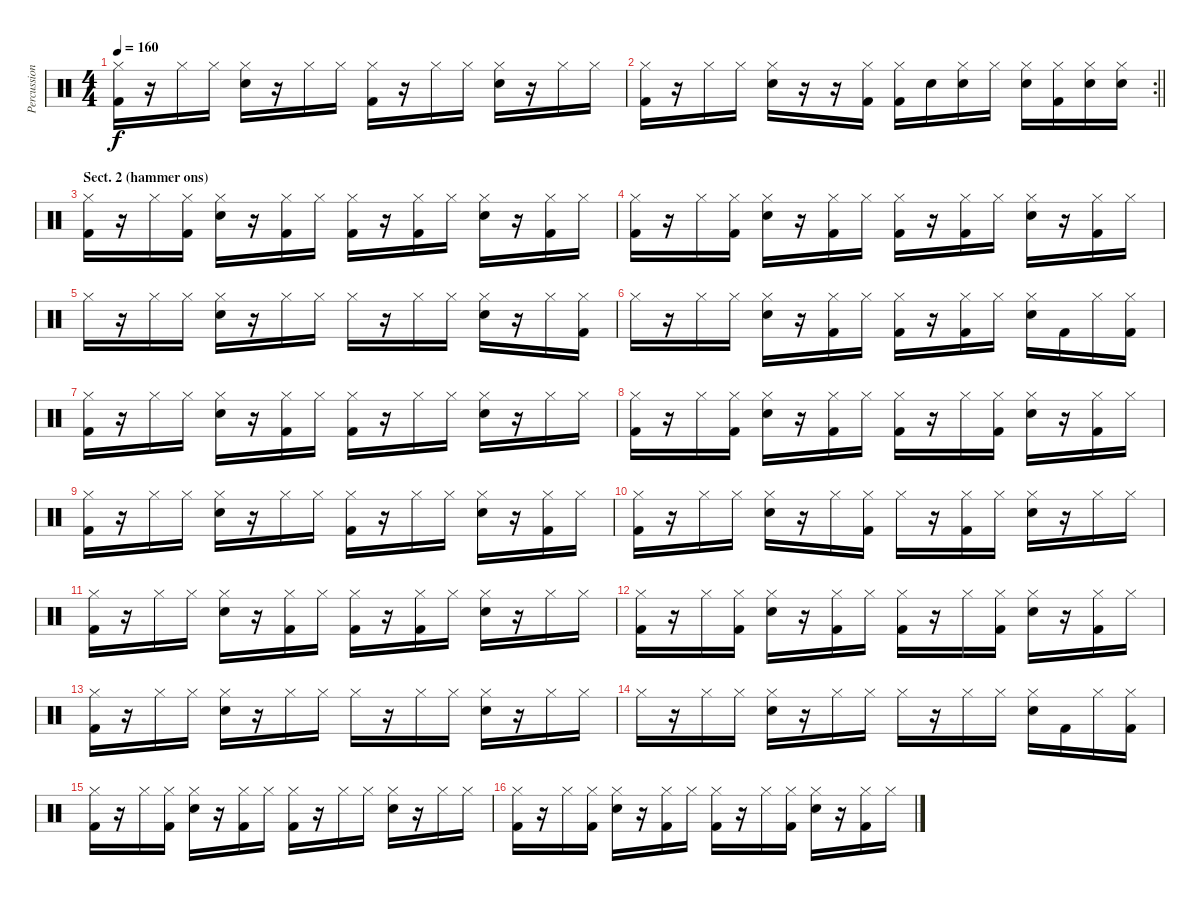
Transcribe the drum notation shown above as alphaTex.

\track ("Percussion" "Percussion") {instrument percussion}
\staff {score}
\articulation defaults
\ts (4 4)
\tempo 160
\clef neutral
\ks c
("Hi-Hat (closed)" "Kick (hit) 2").16{dy f} r.16 "Hi-Hat (closed)".16 "Hi-Hat (closed)".16 ("Hi-Hat (closed)" "Snare (hit) 2").16 r.16 "Hi-Hat (closed)".16 "Hi-Hat (closed)".16 ("Hi-Hat (closed)" "Kick (hit) 2").16 r.16 "Hi-Hat (closed)".16 "Hi-Hat (closed)".16 ("Hi-Hat (closed)" "Snare (hit) 2").16 r.16 "Hi-Hat (closed)".16 "Hi-Hat (closed)".16 |
\rc 2
\barLineRight lightlight
("Hi-Hat (closed)" "Kick (hit) 2").16 r.16 "Hi-Hat (closed)".16 "Hi-Hat (closed)".16 ("Hi-Hat (closed)" "Snare (hit) 2").16 r.16 r.16 ("Hi-Hat (closed)" "Kick (hit) 2").16 ("Hi-Hat (closed)" "Kick (hit) 2").16 "Snare (hit) 2".16 ("Hi-Hat (closed)" "Snare (hit) 2").16 "Hi-Hat (closed)".16 ("Hi-Hat (closed)" "Snare (hit) 2").16 ("Hi-Hat (closed)" "Kick (hit) 2").16 ("Hi-Hat (closed)" "Snare (hit) 2").16 ("Hi-Hat (closed)" "Snare (hit) 2").16 |
\section ("" "Sect. 2 (hammer ons)")
("Hi-Hat (closed)" "Kick (hit) 2").16 r.16 "Hi-Hat (closed)".16 ("Hi-Hat (closed)" "Kick (hit) 2").16 ("Hi-Hat (closed)" "Snare (hit) 2").16 r.16 ("Hi-Hat (closed)" "Kick (hit) 2").16 "Hi-Hat (closed)".16 ("Hi-Hat (closed)" "Kick (hit) 2").16 r.16 ("Hi-Hat (closed)" "Kick (hit) 2").16 "Hi-Hat (closed)".16 ("Hi-Hat (closed)" "Snare (hit) 2").16 r.16 ("Hi-Hat (closed)" "Kick (hit) 2").16 "Hi-Hat (closed)".16 |
("Hi-Hat (closed)" "Kick (hit) 2").16 r.16 "Hi-Hat (closed)".16 ("Hi-Hat (closed)" "Kick (hit) 2").16 ("Hi-Hat (closed)" "Snare (hit) 2").16 r.16 ("Hi-Hat (closed)" "Kick (hit) 2").16 "Hi-Hat (closed)".16 ("Hi-Hat (closed)" "Kick (hit) 2").16 r.16 ("Hi-Hat (closed)" "Kick (hit) 2").16 "Hi-Hat (closed)".16 ("Hi-Hat (closed)" "Snare (hit) 2").16 r.16 ("Hi-Hat (closed)" "Kick (hit) 2").16 "Hi-Hat (closed)".16 |
"Hi-Hat (closed)".16 r.16 "Hi-Hat (closed)".16 "Hi-Hat (closed)".16 ("Hi-Hat (closed)" "Snare (hit) 2").16 r.16 "Hi-Hat (closed)".16 "Hi-Hat (closed)".16 "Hi-Hat (closed)".16 r.16 "Hi-Hat (closed)".16 "Hi-Hat (closed)".16 ("Hi-Hat (closed)" "Snare (hit) 2").16 r.16 "Hi-Hat (closed)".16 ("Hi-Hat (closed)" "Kick (hit) 2").16 |
"Hi-Hat (closed)".16 r.16 "Hi-Hat (closed)".16 "Hi-Hat (closed)".16 ("Hi-Hat (closed)" "Snare (hit) 2").16 r.16 ("Hi-Hat (closed)" "Kick (hit) 2").16 "Hi-Hat (closed)".16 ("Hi-Hat (closed)" "Kick (hit) 2").16 r.16 ("Hi-Hat (closed)" "Kick (hit) 2").16 "Hi-Hat (closed)".16 ("Hi-Hat (closed)" "Snare (hit) 2").16 "Kick (hit) 2".16 "Hi-Hat (closed)".16 ("Hi-Hat (closed)" "Kick (hit) 2").16 |
("Hi-Hat (closed)" "Kick (hit) 2").16 r.16 "Hi-Hat (closed)".16 "Hi-Hat (closed)".16 ("Hi-Hat (closed)" "Snare (hit) 2").16 r.16 ("Hi-Hat (closed)" "Kick (hit) 2").16 "Hi-Hat (closed)".16 ("Hi-Hat (closed)" "Kick (hit) 2").16 r.16 "Hi-Hat (closed)".16 "Hi-Hat (closed)".16 ("Hi-Hat (closed)" "Snare (hit) 2").16 r.16 "Hi-Hat (closed)".16 "Hi-Hat (closed)".16 |
("Hi-Hat (closed)" "Kick (hit) 2").16 r.16 "Hi-Hat (closed)".16 ("Hi-Hat (closed)" "Kick (hit) 2").16 ("Hi-Hat (closed)" "Snare (hit) 2").16 r.16 ("Hi-Hat (closed)" "Kick (hit) 2").16 "Hi-Hat (closed)".16 ("Hi-Hat (closed)" "Kick (hit) 2").16 r.16 "Hi-Hat (closed)".16 ("Hi-Hat (closed)" "Kick (hit) 2").16 ("Hi-Hat (closed)" "Snare (hit) 2").16 r.16 ("Hi-Hat (closed)" "Kick (hit) 2").16 "Hi-Hat (closed)".16 |
("Hi-Hat (closed)" "Kick (hit) 2").16 r.16 "Hi-Hat (closed)".16 "Hi-Hat (closed)".16 ("Hi-Hat (closed)" "Snare (hit) 2").16 r.16 "Hi-Hat (closed)".16 "Hi-Hat (closed)".16 ("Hi-Hat (closed)" "Kick (hit) 2").16 r.16 "Hi-Hat (closed)".16 "Hi-Hat (closed)".16 ("Hi-Hat (closed)" "Snare (hit) 2").16 r.16 ("Hi-Hat (closed)" "Kick (hit) 2").16 "Hi-Hat (closed)".16 |
("Hi-Hat (closed)" "Kick (hit) 2").16 r.16 "Hi-Hat (closed)".16 "Hi-Hat (closed)".16 ("Hi-Hat (closed)" "Snare (hit) 2").16 r.16 "Hi-Hat (closed)".16 ("Hi-Hat (closed)" "Kick (hit) 2").16 "Hi-Hat (closed)".16 r.16 ("Hi-Hat (closed)" "Kick (hit) 2").16 "Hi-Hat (closed)".16 ("Hi-Hat (closed)" "Snare (hit) 2").16 r.16 "Hi-Hat (closed)".16 "Hi-Hat (closed)".16 |
("Hi-Hat (closed)" "Kick (hit) 2").16 r.16 "Hi-Hat (closed)".16 "Hi-Hat (closed)".16 ("Hi-Hat (closed)" "Snare (hit) 2").16 r.16 ("Hi-Hat (closed)" "Kick (hit) 2").16 "Hi-Hat (closed)".16 ("Hi-Hat (closed)" "Kick (hit) 2").16 r.16 ("Hi-Hat (closed)" "Kick (hit) 2").16 "Hi-Hat (closed)".16 ("Hi-Hat (closed)" "Snare (hit) 2").16 r.16 "Hi-Hat (closed)".16 "Hi-Hat (closed)".16 |
("Hi-Hat (closed)" "Kick (hit) 2").16 r.16 "Hi-Hat (closed)".16 ("Hi-Hat (closed)" "Kick (hit) 2").16 ("Hi-Hat (closed)" "Snare (hit) 2").16 r.16 ("Hi-Hat (closed)" "Kick (hit) 2").16 "Hi-Hat (closed)".16 ("Hi-Hat (closed)" "Kick (hit) 2").16 r.16 "Hi-Hat (closed)".16 ("Hi-Hat (closed)" "Kick (hit) 2").16 ("Hi-Hat (closed)" "Snare (hit) 2").16 r.16 ("Hi-Hat (closed)" "Kick (hit) 2").16 "Hi-Hat (closed)".16 |
("Hi-Hat (closed)" "Kick (hit) 2").16 r.16 "Hi-Hat (closed)".16 "Hi-Hat (closed)".16 ("Hi-Hat (closed)" "Snare (hit) 2").16 r.16 "Hi-Hat (closed)".16 "Hi-Hat (closed)".16 "Hi-Hat (closed)".16 r.16 "Hi-Hat (closed)".16 "Hi-Hat (closed)".16 ("Hi-Hat (closed)" "Snare (hit) 2").16 r.16 "Hi-Hat (closed)".16 "Hi-Hat (closed)".16 |
"Hi-Hat (closed)".16 r.16 "Hi-Hat (closed)".16 "Hi-Hat (closed)".16 ("Hi-Hat (closed)" "Snare (hit) 2").16 r.16 "Hi-Hat (closed)".16 "Hi-Hat (closed)".16 "Hi-Hat (closed)".16 r.16 "Hi-Hat (closed)".16 "Hi-Hat (closed)".16 ("Hi-Hat (closed)" "Snare (hit) 2").16 "Kick (hit) 2".16 "Hi-Hat (closed)".16 ("Hi-Hat (closed)" "Kick (hit) 2").16 |
("Hi-Hat (closed)" "Kick (hit) 2").16 r.16 "Hi-Hat (closed)".16 ("Hi-Hat (closed)" "Kick (hit) 2").16 ("Hi-Hat (closed)" "Snare (hit) 2").16 r.16 ("Hi-Hat (closed)" "Kick (hit) 2").16 "Hi-Hat (closed)".16 ("Hi-Hat (closed)" "Kick (hit) 2").16 r.16 "Hi-Hat (closed)".16 "Hi-Hat (closed)".16 ("Hi-Hat (closed)" "Snare (hit) 2").16 r.16 "Hi-Hat (closed)".16 "Hi-Hat (closed)".16 |
("Hi-Hat (closed)" "Kick (hit) 2").16 r.16 "Hi-Hat (closed)".16 ("Hi-Hat (closed)" "Kick (hit) 2").16 ("Hi-Hat (closed)" "Snare (hit) 2").16 r.16 ("Hi-Hat (closed)" "Kick (hit) 2").16 "Hi-Hat (closed)".16 ("Hi-Hat (closed)" "Kick (hit) 2").16 r.16 "Hi-Hat (closed)".16 ("Hi-Hat (closed)" "Kick (hit) 2").16 ("Hi-Hat (closed)" "Snare (hit) 2").16 r.16 ("Hi-Hat (closed)" "Kick (hit) 2").16 "Hi-Hat (closed)".16
